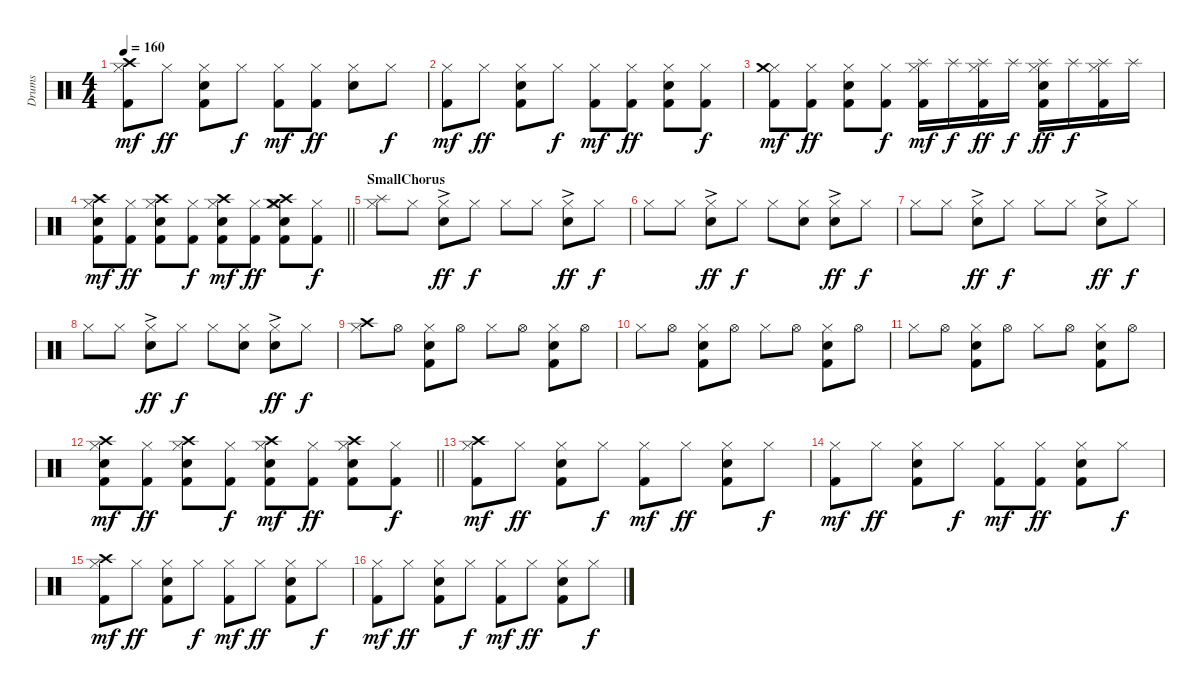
\track ("Drums" "Drums") {instrument percussion}
\staff {score}
\articulation defaults
\ts (4 4)
\tempo 160
\clef neutral
\ks c
("Hi-Hat (closed)" "Crash high (hit)" "Kick (hit) 2").8{dy mf} "Hi-Hat (closed)".8{dy ff} ("Hi-Hat (closed)" "Electric Snare (hit)" "Kick (hit) 2").8 "Hi-Hat (closed)".8{dy f} ("Hi-Hat (closed)" "Kick (hit) 2").8{dy mf} ("Hi-Hat (closed)" "Kick (hit) 2").8{dy ff} ("Hi-Hat (closed)" "Electric Snare (hit)").8 "Hi-Hat (closed)".8{dy f} |
("Hi-Hat (closed)" "Kick (hit) 2").8{dy mf} "Hi-Hat (closed)".8{dy ff} ("Hi-Hat (closed)" "Electric Snare (hit)" "Kick (hit) 2").8 "Hi-Hat (closed)".8{dy f} ("Hi-Hat (closed)" "Kick (hit) 2").8{dy mf} ("Hi-Hat (closed)" "Kick (hit) 2").8{dy ff} ("Hi-Hat (closed)" "Electric Snare (hit)" "Kick (hit) 2").8 ("Hi-Hat (closed)" "Kick (hit) 2").8{dy f} |
("Hi-Hat (closed)" "Crash medium (hit)" "Kick (hit) 2").8{dy mf} ("Hi-Hat (closed)" "Kick (hit) 2").8{dy ff} ("Hi-Hat (closed)" "Electric Snare (hit)" "Kick (hit) 2").8 ("Hi-Hat (closed)" "Kick (hit) 2").8{dy f} ("Hi-Hat (closed)" "Splash (hit)" "Kick (hit) 2").16{dy mf} "Splash (hit)".16{dy f} ("Hi-Hat (closed)" "Splash (hit)" "Kick (hit) 2").16{dy ff} "Splash (hit)".16{dy f} ("Hi-Hat (closed)" "Electric Snare (hit)" "Splash (hit)" "Kick (hit) 2").16{dy ff} "Splash (hit)".16{dy f} ("Hi-Hat (closed)" "Splash (hit)" "Kick (hit) 2").16 "Splash (hit)".16 |
\barLineRight lightlight
("Hi-Hat (closed)" "Electric Snare (hit)" "Crash high (hit)" "Kick (hit) 2").8{dy mf} ("Hi-Hat (closed)" "Kick (hit) 2").8{dy ff} ("Hi-Hat (closed)" "Electric Snare (hit)" "Crash high (hit)" "Kick (hit) 2").8 ("Hi-Hat (closed)" "Kick (hit) 2").8{dy f} ("Hi-Hat (closed)" "Electric Snare (hit)" "Crash high (hit)" "Kick (hit) 2").8{dy mf} ("Hi-Hat (closed)" "Kick (hit) 2").8{dy ff} ("Hi-Hat (closed)" "Electric Snare (hit)" "Crash high (hit)" "Crash medium (hit)" "Kick (hit) 2").8 ("Hi-Hat (closed)" "Kick (hit) 2").8{dy f} |
\section ("" "SmallChorus")
("Hi-Hat (closed)" "Splash (hit)").8 "Hi-Hat (closed)".8 ("Hi-Hat (closed)"{ac} "Hand Clap (hit)").8{dy ff} "Hi-Hat (closed)".8{dy f} "Hi-Hat (closed)".8 "Hi-Hat (closed)".8 ("Hi-Hat (closed)"{ac} "Hand Clap (hit)").8{dy ff} "Hi-Hat (closed)".8{dy f} |
"Hi-Hat (closed)".8 "Hi-Hat (closed)".8 ("Hi-Hat (closed)"{ac} "Hand Clap (hit)").8{dy ff} "Hi-Hat (closed)".8{dy f} "Hi-Hat (closed)".8 ("Hi-Hat (closed)" "Hand Clap (hit)").8 ("Hi-Hat (closed)"{ac} "Hand Clap (hit)").8{dy ff} "Hi-Hat (closed)".8{dy f} |
"Hi-Hat (closed)".8 "Hi-Hat (closed)".8 ("Hi-Hat (closed)"{ac} "Hand Clap (hit)").8{dy ff} "Hi-Hat (closed)".8{dy f} "Hi-Hat (closed)".8 "Hi-Hat (closed)".8 ("Hi-Hat (closed)"{ac} "Hand Clap (hit)").8{dy ff} "Hi-Hat (closed)".8{dy f} |
"Hi-Hat (closed)".8 "Hi-Hat (closed)".8 ("Hi-Hat (closed)"{ac} "Hand Clap (hit)").8{dy ff} "Hi-Hat (closed)".8{dy f} "Hi-Hat (closed)".8 ("Hi-Hat (closed)" "Hand Clap (hit)").8 ("Hi-Hat (closed)"{ac} "Hand Clap (hit)").8{dy ff} "Hi-Hat (closed)".8{dy f} |
("Hi-Hat (closed)" "Crash high (hit)").8 "Hi-Hat (open)".8 ("Hi-Hat (closed)" "Hand Clap (hit)" "Kick (hit) 2").8 "Hi-Hat (open)".8 "Hi-Hat (closed)".8 "Hi-Hat (open)".8 ("Hi-Hat (closed)" "Hand Clap (hit)" "Kick (hit) 2").8 "Hi-Hat (open)".8 |
"Hi-Hat (closed)".8 "Hi-Hat (open)".8 ("Hi-Hat (closed)" "Hand Clap (hit)" "Kick (hit) 2").8 "Hi-Hat (open)".8 "Hi-Hat (closed)".8 "Hi-Hat (open)".8 ("Hi-Hat (closed)" "Hand Clap (hit)" "Kick (hit) 2").8 "Hi-Hat (open)".8 |
"Hi-Hat (closed)".8 "Hi-Hat (open)".8 ("Hi-Hat (closed)" "Hand Clap (hit)" "Kick (hit) 2").8 "Hi-Hat (open)".8 "Hi-Hat (closed)".8 "Hi-Hat (open)".8 ("Hi-Hat (closed)" "Hand Clap (hit)" "Kick (hit) 2").8 "Hi-Hat (open)".8 |
\barLineRight lightlight
("Hi-Hat (closed)" "Electric Snare (hit)" "Crash high (hit)" "Kick (hit) 2").8{dy mf} ("Hi-Hat (closed)" "Kick (hit) 2").8{dy ff} ("Hi-Hat (closed)" "Electric Snare (hit)" "Crash high (hit)" "Kick (hit) 2").8 ("Hi-Hat (closed)" "Kick (hit) 2").8{dy f} ("Hi-Hat (closed)" "Electric Snare (hit)" "Crash high (hit)" "Kick (hit) 2").8{dy mf} ("Hi-Hat (closed)" "Kick (hit) 2").8{dy ff} ("Hi-Hat (closed)" "Electric Snare (hit)" "Crash high (hit)" "Kick (hit) 2").8 ("Hi-Hat (closed)" "Kick (hit) 2").8{dy f} |
("Hi-Hat (closed)" "Crash high (hit)" "Kick (hit) 2").8{dy mf} "Hi-Hat (closed)".8{dy ff} ("Hi-Hat (closed)" "Electric Snare (hit)" "Kick (hit) 2").8 "Hi-Hat (closed)".8{dy f} ("Hi-Hat (closed)" "Kick (hit) 2").8{dy mf} "Hi-Hat (closed)".8{dy ff} ("Hi-Hat (closed)" "Electric Snare (hit)" "Kick (hit) 2").8 "Hi-Hat (closed)".8{dy f} |
("Hi-Hat (closed)" "Kick (hit) 2").8{dy mf} "Hi-Hat (closed)".8{dy ff} ("Hi-Hat (closed)" "Electric Snare (hit)" "Kick (hit) 2").8 "Hi-Hat (closed)".8{dy f} ("Hi-Hat (closed)" "Kick (hit) 2").8{dy mf} ("Hi-Hat (closed)" "Kick (hit) 2").8{dy ff} ("Hi-Hat (closed)" "Electric Snare (hit)" "Kick (hit) 2").8 "Hi-Hat (closed)".8{dy f} |
("Hi-Hat (closed)" "Crash high (hit)" "Kick (hit) 2").8{dy mf} "Hi-Hat (closed)".8{dy ff} ("Hi-Hat (closed)" "Electric Snare (hit)" "Kick (hit) 2").8 "Hi-Hat (closed)".8{dy f} ("Hi-Hat (closed)" "Kick (hit) 2").8{dy mf} "Hi-Hat (closed)".8{dy ff} ("Hi-Hat (closed)" "Electric Snare (hit)" "Kick (hit) 2").8 "Hi-Hat (closed)".8{dy f} |
("Hi-Hat (closed)" "Kick (hit) 2").8{dy mf} "Hi-Hat (closed)".8{dy ff} ("Hi-Hat (closed)" "Electric Snare (hit)" "Kick (hit) 2").8 "Hi-Hat (closed)".8{dy f} ("Hi-Hat (closed)" "Kick (hit) 2").8{dy mf} "Hi-Hat (closed)".8{dy ff} ("Hi-Hat (closed)" "Electric Snare (hit)" "Kick (hit) 2").8 "Hi-Hat (closed)".8{dy f}
